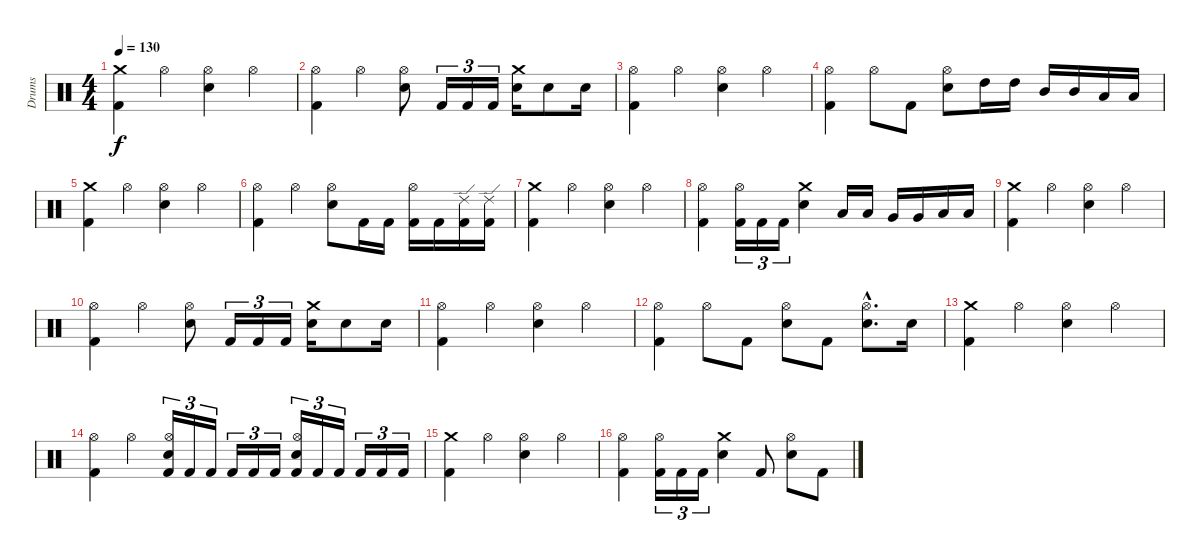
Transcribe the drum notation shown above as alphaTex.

\track ("Drums" "Drums") {instrument percussion}
\staff {score}
\articulation defaults
\ts (4 4)
\tempo 130
\clef neutral
\ks c
("Kick (hit) 2" "Crash medium (hit)").4{dy f} "Hi-Hat (open)".4 ("Electric Snare (hit)" "Hi-Hat (open)").4 "Hi-Hat (open)".4 |
("Kick (hit) 2" "Hi-Hat (open)").4 "Hi-Hat (open)".4 ("Electric Snare (hit)" "Hi-Hat (open)").8 "Kick (hit) 2".16{tu (3 2)} "Kick (hit) 2".16{tu (3 2)} "Kick (hit) 2".16{tu (3 2)} ("Electric Snare (hit)" "Crash medium (hit)").16 "Electric Snare (hit)".8 "Electric Snare (hit)".16 |
("Kick (hit) 2" "Hi-Hat (open)").4 "Hi-Hat (open)".4 ("Electric Snare (hit)" "Hi-Hat (open)").4 "Hi-Hat (open)".4 |
("Kick (hit) 2" "Hi-Hat (open)").4 "Hi-Hat (open)".8 "Kick (hit) 2".8 ("Electric Snare (hit)" "Hi-Hat (open)").8 "High Tom (hit)".16 "High Tom (hit)".16 "Mid Tom (hit)".16 "Mid Tom (hit)".16 "Low Tom (hit)".16 "Low Tom (hit)".16 |
("Kick (hit) 2" "Crash medium (hit)").4 "Hi-Hat (open)".4 ("Electric Snare (hit)" "Hi-Hat (open)").4 "Hi-Hat (open)".4 |
("Kick (hit) 2" "Hi-Hat (open)").4 "Hi-Hat (open)".4 ("Electric Snare (hit)" "Hi-Hat (open)").8 "Kick (hit) 2".16 "Kick (hit) 2".16 ("Kick (hit) 2" "Hi-Hat (open)").16 "Kick (hit) 2".16 ("Kick (hit) 2" "Ride (edge) 2").16 ("Kick (hit) 2" "Ride (edge) 2").16 |
("Kick (hit) 2" "Crash medium (hit)").4 "Hi-Hat (open)".4 ("Electric Snare (hit)" "Hi-Hat (open)").4 "Hi-Hat (open)".4 |
("Kick (hit) 2" "Hi-Hat (open)").4 ("Kick (hit) 2" "Hi-Hat (open)").16{tu (3 2)} "Kick (hit) 2".16{tu (3 2)} "Kick (hit) 2".16{tu (3 2)} ("Electric Snare (hit)" "Crash medium (hit)").4 "Low Tom (hit)".16 "Low Tom (hit)".16 "Very Low Tom (hit)".16 "Very Low Tom (hit)".16 "Low Floor Tom (hit)".16 "Low Floor Tom (hit)".16 |
("Kick (hit) 2" "Crash medium (hit)").4 "Hi-Hat (open)".4 ("Electric Snare (hit)" "Hi-Hat (open)").4 "Hi-Hat (open)".4 |
("Kick (hit) 2" "Hi-Hat (open)").4 "Hi-Hat (open)".4 ("Electric Snare (hit)" "Hi-Hat (open)").8 "Kick (hit) 2".16{tu (3 2)} "Kick (hit) 2".16{tu (3 2)} "Kick (hit) 2".16{tu (3 2)} ("Electric Snare (hit)" "Crash medium (hit)").16 "Electric Snare (hit)".8 "Electric Snare (hit)".16 |
("Kick (hit) 2" "Hi-Hat (open)").4 "Hi-Hat (open)".4 ("Electric Snare (hit)" "Hi-Hat (open)").4 "Hi-Hat (open)".4 |
("Kick (hit) 2" "Hi-Hat (open)").4 "Hi-Hat (open)".8 "Kick (hit) 2".8 ("Electric Snare (hit)" "Hi-Hat (open)").8 "Kick (hit) 2".8 ("Electric Snare (hit)"{hac} "Hi-Hat (open)"{hac}).8{d} "Electric Snare (hit)".16 |
("Kick (hit) 2" "Crash medium (hit)").4 "Hi-Hat (open)".4 ("Electric Snare (hit)" "Hi-Hat (open)").4 "Hi-Hat (open)".4 |
("Kick (hit) 2" "Hi-Hat (open)").4 "Hi-Hat (open)".4 ("Kick (hit) 2" "Electric Snare (hit)" "Hi-Hat (open)").16{tu (3 2)} "Kick (hit) 2".16{tu (3 2)} "Kick (hit) 2".16{tu (3 2)} "Kick (hit) 2".16{tu (3 2)} "Kick (hit) 2".16{tu (3 2)} "Kick (hit) 2".16{tu (3 2)} ("Kick (hit) 2" "Electric Snare (hit)" "Hi-Hat (open)").16{tu (3 2)} "Kick (hit) 2".16{tu (3 2)} "Kick (hit) 2".16{tu (3 2)} "Kick (hit) 2".16{tu (3 2)} "Kick (hit) 2".16{tu (3 2)} "Kick (hit) 2".16{tu (3 2)} |
("Kick (hit) 2" "Crash medium (hit)").4 "Hi-Hat (open)".4 ("Electric Snare (hit)" "Hi-Hat (open)").4 "Hi-Hat (open)".4 |
("Kick (hit) 2" "Hi-Hat (open)").4 ("Kick (hit) 2" "Hi-Hat (open)").16{tu (3 2)} "Kick (hit) 2".16{tu (3 2)} "Kick (hit) 2".16{tu (3 2)} ("Electric Snare (hit)" "Crash medium (hit)").4 "Kick (hit) 2".8 ("Electric Snare (hit)" "Hi-Hat (open)").8 "Kick (hit) 2".8
